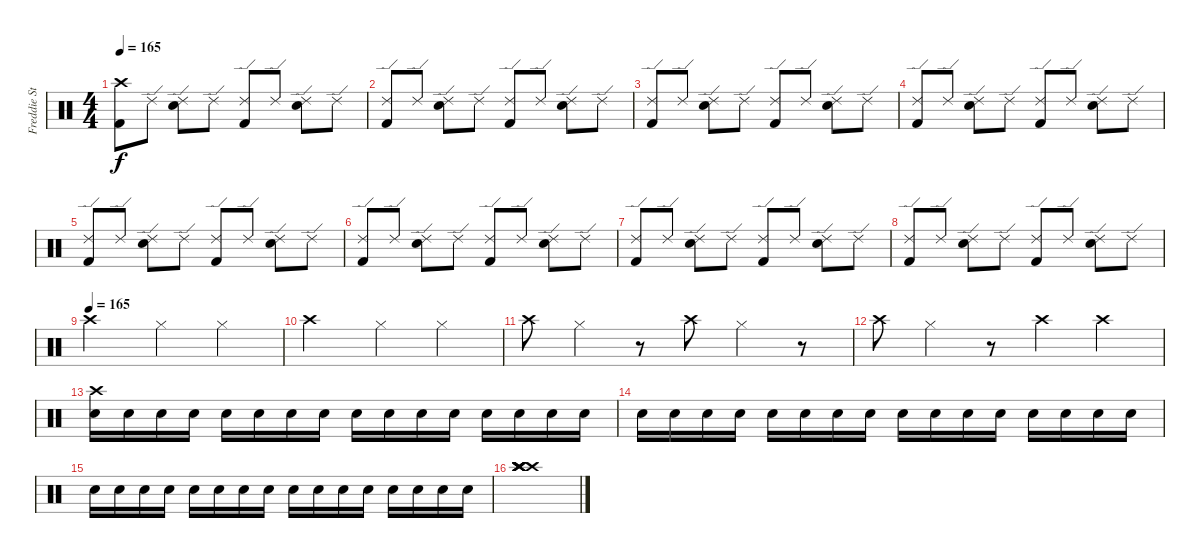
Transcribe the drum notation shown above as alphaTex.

\track ("Freddie Strauks" "Freddie St") {instrument percussion}
\staff {score}
\articulation defaults
\ts (4 4)
\tempo 165
\clef neutral
\ks c
("Crash high (hit)" "Kick (hit) 2").8{dy f} "Ride (edge) 2".8 ("Ride (edge) 2" "Snare (hit) 2").8 "Ride (edge) 2".8 ("Ride (edge) 2" "Kick (hit) 2").8 "Ride (edge) 2".8 ("Ride (edge) 2" "Snare (hit) 2").8 "Ride (edge) 2".8 |
("Ride (edge) 2" "Kick (hit) 2").8 "Ride (edge) 2".8 ("Ride (edge) 2" "Snare (hit) 2").8 "Ride (edge) 2".8 ("Ride (edge) 2" "Kick (hit) 2").8 "Ride (edge) 2".8 ("Ride (edge) 2" "Snare (hit) 2").8 "Ride (edge) 2".8 |
("Ride (edge) 2" "Kick (hit) 2").8 "Ride (edge) 2".8 ("Ride (edge) 2" "Snare (hit) 2").8 "Ride (edge) 2".8 ("Ride (edge) 2" "Kick (hit) 2").8 "Ride (edge) 2".8 ("Ride (edge) 2" "Snare (hit) 2").8 "Ride (edge) 2".8 |
("Ride (edge) 2" "Kick (hit) 2").8 "Ride (edge) 2".8 ("Ride (edge) 2" "Snare (hit) 2").8 "Ride (edge) 2".8 ("Ride (edge) 2" "Kick (hit) 2").8 "Ride (edge) 2".8 ("Ride (edge) 2" "Snare (hit) 2").8 "Ride (edge) 2".8 |
("Ride (edge) 2" "Kick (hit) 2").8 "Ride (edge) 2".8 ("Ride (edge) 2" "Snare (hit) 2").8 "Ride (edge) 2".8 ("Ride (edge) 2" "Kick (hit) 2").8 "Ride (edge) 2".8 ("Ride (edge) 2" "Snare (hit) 2").8 "Ride (edge) 2".8 |
("Ride (edge) 2" "Kick (hit) 2").8 "Ride (edge) 2".8 ("Ride (edge) 2" "Snare (hit) 2").8 "Ride (edge) 2".8 ("Ride (edge) 2" "Kick (hit) 2").8 "Ride (edge) 2".8 ("Ride (edge) 2" "Snare (hit) 2").8 "Ride (edge) 2".8 |
("Ride (edge) 2" "Kick (hit) 2").8 "Ride (edge) 2".8 ("Ride (edge) 2" "Snare (hit) 2").8 "Ride (edge) 2".8 ("Ride (edge) 2" "Kick (hit) 2").8 "Ride (edge) 2".8 ("Ride (edge) 2" "Snare (hit) 2").8 "Ride (edge) 2".8 |
("Ride (edge) 2" "Kick (hit) 2").8 "Ride (edge) 2".8 ("Ride (edge) 2" "Snare (hit) 2").8 "Ride (edge) 2".8 ("Ride (edge) 2" "Kick (hit) 2").8 "Ride (edge) 2".8 ("Ride (edge) 2" "Snare (hit) 2").8 "Ride (edge) 2".8 |
\tempo (165)
"Crash high (hit)".2 "Hi-Hat (closed)".4 "Hi-Hat (closed)".4 |
"Crash high (hit)".2 "Hi-Hat (closed)".4 "Hi-Hat (closed)".4 |
"Crash high (hit)".8 "Hi-Hat (closed)".4 r.8 "Crash high (hit)".8 "Hi-Hat (closed)".4 r.8 |
"Crash high (hit)".8 "Hi-Hat (closed)".4 r.8 "Crash high (hit)".4 "Crash high (hit)".4 |
("Crash high (hit)" "Snare (hit) 2").16 "Snare (hit) 2".16 "Snare (hit) 2".16 "Snare (hit) 2".16 "Snare (hit) 2".16 "Snare (hit) 2".16 "Snare (hit) 2".16 "Snare (hit) 2".16 "Snare (hit) 2".16 "Snare (hit) 2".16 "Snare (hit) 2".16 "Snare (hit) 2".16 "Snare (hit) 2".16 "Snare (hit) 2".16 "Snare (hit) 2".16 "Snare (hit) 2".16 |
"Snare (hit) 2".16 "Snare (hit) 2".16 "Snare (hit) 2".16 "Snare (hit) 2".16 "Snare (hit) 2".16 "Snare (hit) 2".16 "Snare (hit) 2".16 "Snare (hit) 2".16 "Snare (hit) 2".16 "Snare (hit) 2".16 "Snare (hit) 2".16 "Snare (hit) 2".16 "Snare (hit) 2".16 "Snare (hit) 2".16 "Snare (hit) 2".16 "Snare (hit) 2".16 |
"Snare (hit) 2".16 "Snare (hit) 2".16 "Snare (hit) 2".16 "Snare (hit) 2".16 "Snare (hit) 2".16 "Snare (hit) 2".16 "Snare (hit) 2".16 "Snare (hit) 2".16 "Snare (hit) 2".16 "Snare (hit) 2".16 "Snare (hit) 2".16 "Snare (hit) 2".16 "Snare (hit) 2".16 "Snare (hit) 2".16 "Snare (hit) 2".16 "Snare (hit) 2".16 |
("Crash high (hit)" "Crash high (hit)" "Crash high (hit)" "Crash high (hit)" "Crash high (hit)" "Crash high (hit)").1
